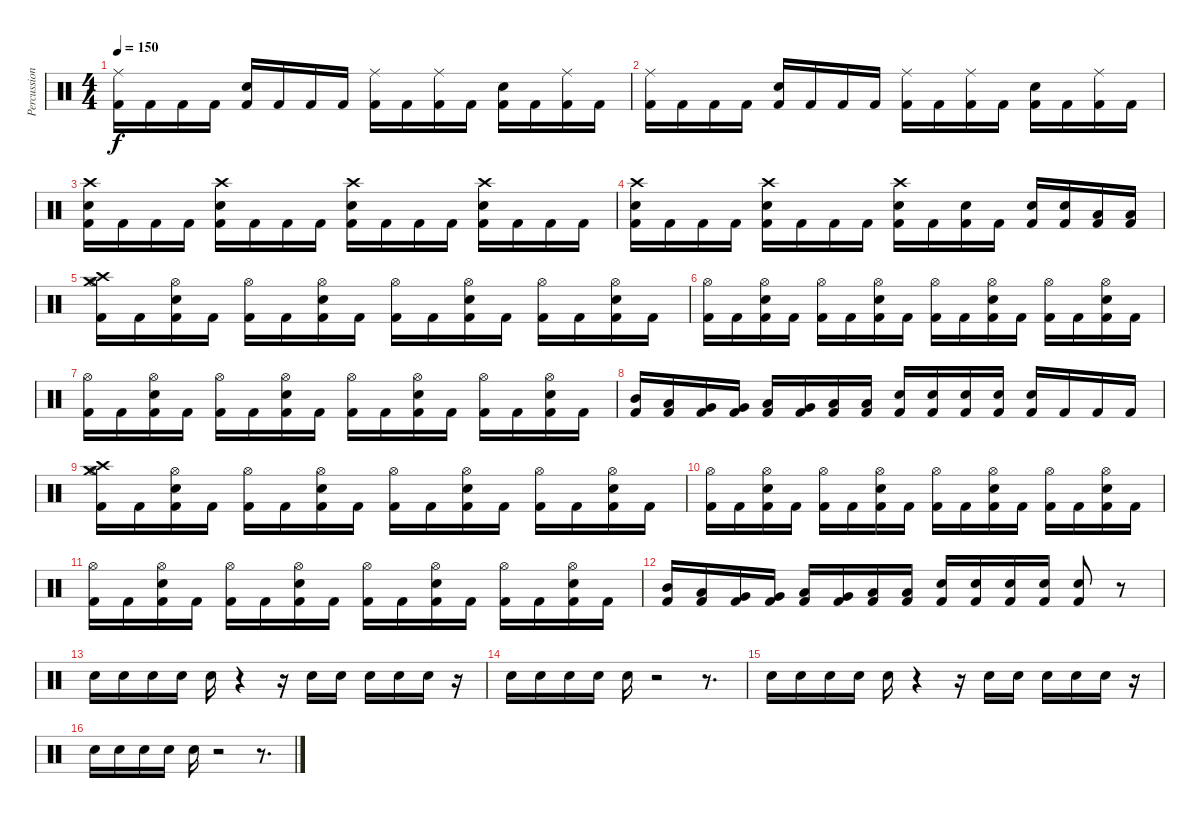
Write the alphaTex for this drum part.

\track ("Percussion" "Percussion") {instrument percussion}
\staff {score}
\articulation defaults
\ts (4 4)
\tempo 150
\clef neutral
\ks c
("Kick (hit) 2" "Ride (middle)").16{dy f} "Kick (hit) 2".16 "Kick (hit) 2".16 "Kick (hit) 2".16 ("Kick (hit) 2" "Electric Snare (hit)").16 "Kick (hit) 2".16 "Kick (hit) 2".16 "Kick (hit) 2".16 ("Kick (hit) 2" "Ride (middle)").16 "Kick (hit) 2".16 ("Kick (hit) 2" "Ride (middle)").16 "Kick (hit) 2".16 ("Kick (hit) 2" "Electric Snare (hit)").16 "Kick (hit) 2".16 ("Kick (hit) 2" "Ride (middle)").16 "Kick (hit) 2".16 |
("Kick (hit) 2" "Ride (middle)").16 "Kick (hit) 2".16 "Kick (hit) 2".16 "Kick (hit) 2".16 ("Kick (hit) 2" "Electric Snare (hit)").16 "Kick (hit) 2".16 "Kick (hit) 2".16 "Kick (hit) 2".16 ("Kick (hit) 2" "Ride (middle)").16 "Kick (hit) 2".16 ("Kick (hit) 2" "Ride (middle)").16 "Kick (hit) 2".16 ("Kick (hit) 2" "Electric Snare (hit)").16 "Kick (hit) 2".16 ("Kick (hit) 2" "Ride (middle)").16 "Kick (hit) 2".16 |
("Kick (hit) 2" "Electric Snare (hit)" "Crash high (hit)").16 "Kick (hit) 2".16 "Kick (hit) 2".16 "Kick (hit) 2".16 ("Kick (hit) 2" "Electric Snare (hit)" "Crash high (hit)").16 "Kick (hit) 2".16 "Kick (hit) 2".16 "Kick (hit) 2".16 ("Kick (hit) 2" "Electric Snare (hit)" "Crash high (hit)").16 "Kick (hit) 2".16 "Kick (hit) 2".16 "Kick (hit) 2".16 ("Kick (hit) 2" "Electric Snare (hit)" "Crash high (hit)").16 "Kick (hit) 2".16 "Kick (hit) 2".16 "Kick (hit) 2".16 |
("Kick (hit) 2" "Electric Snare (hit)" "Crash high (hit)").16 "Kick (hit) 2".16 "Kick (hit) 2".16 "Kick (hit) 2".16 ("Kick (hit) 2" "Electric Snare (hit)" "Crash high (hit)").16 "Kick (hit) 2".16 "Kick (hit) 2".16 "Kick (hit) 2".16 ("Kick (hit) 2" "Electric Snare (hit)" "Crash high (hit)").16 "Kick (hit) 2".16 ("Kick (hit) 2" "Electric Snare (hit)").16 "Kick (hit) 2".16 ("Kick (hit) 2" "Electric Snare (hit)").16 ("Kick (hit) 2" "Electric Snare (hit)").16 ("Kick (hit) 2" "Low Tom (hit)").16 ("Kick (hit) 2" "Low Tom (hit)").16 |
("Kick (hit) 2" "Crash high (hit)" "Crash medium (hit)" "Hi-Hat (open)").16 "Kick (hit) 2".16 ("Kick (hit) 2" "Electric Snare (hit)" "Hi-Hat (open)").16 "Kick (hit) 2".16 ("Kick (hit) 2" "Hi-Hat (open)").16 "Kick (hit) 2".16 ("Kick (hit) 2" "Electric Snare (hit)" "Hi-Hat (open)").16 "Kick (hit) 2".16 ("Kick (hit) 2" "Hi-Hat (open)").16 "Kick (hit) 2".16 ("Kick (hit) 2" "Electric Snare (hit)" "Hi-Hat (open)").16 "Kick (hit) 2".16 ("Kick (hit) 2" "Hi-Hat (open)").16 "Kick (hit) 2".16 ("Kick (hit) 2" "Electric Snare (hit)" "Hi-Hat (open)").16 "Kick (hit) 2".16 |
("Kick (hit) 2" "Hi-Hat (open)").16 "Kick (hit) 2".16 ("Kick (hit) 2" "Electric Snare (hit)" "Hi-Hat (open)").16 "Kick (hit) 2".16 ("Kick (hit) 2" "Hi-Hat (open)").16 "Kick (hit) 2".16 ("Kick (hit) 2" "Electric Snare (hit)" "Hi-Hat (open)").16 "Kick (hit) 2".16 ("Kick (hit) 2" "Hi-Hat (open)").16 "Kick (hit) 2".16 ("Kick (hit) 2" "Electric Snare (hit)" "Hi-Hat (open)").16 "Kick (hit) 2".16 ("Kick (hit) 2" "Hi-Hat (open)").16 "Kick (hit) 2".16 ("Kick (hit) 2" "Electric Snare (hit)" "Hi-Hat (open)").16 "Kick (hit) 2".16 |
("Kick (hit) 2" "Hi-Hat (open)").16 "Kick (hit) 2".16 ("Kick (hit) 2" "Electric Snare (hit)" "Hi-Hat (open)").16 "Kick (hit) 2".16 ("Kick (hit) 2" "Hi-Hat (open)").16 "Kick (hit) 2".16 ("Kick (hit) 2" "Electric Snare (hit)" "Hi-Hat (open)").16 "Kick (hit) 2".16 ("Kick (hit) 2" "Hi-Hat (open)").16 "Kick (hit) 2".16 ("Kick (hit) 2" "Electric Snare (hit)" "Hi-Hat (open)").16 "Kick (hit) 2".16 ("Kick (hit) 2" "Hi-Hat (open)").16 "Kick (hit) 2".16 ("Kick (hit) 2" "Electric Snare (hit)" "Hi-Hat (open)").16 "Kick (hit) 2".16 |
("Kick (hit) 2" "Mid Tom (hit)").16 ("Kick (hit) 2" "Low Tom (hit)").16 ("Kick (hit) 2" "Very Low Tom (hit)").16 ("Kick (hit) 2" "Very Low Tom (hit)").16 ("Kick (hit) 2" "Low Tom (hit)").16 ("Kick (hit) 2" "Very Low Tom (hit)").16 ("Kick (hit) 2" "Low Floor Tom (hit)").16 ("Kick (hit) 2" "Low Floor Tom (hit)").16 ("Kick (hit) 2" "Electric Snare (hit)").16 ("Kick (hit) 2" "Electric Snare (hit)").16 ("Kick (hit) 2" "Electric Snare (hit)").16 ("Kick (hit) 2" "Electric Snare (hit)").16 ("Kick (hit) 2" "Electric Snare (hit)").16 "Kick (hit) 2".16 "Kick (hit) 2".16 "Kick (hit) 2".16 |
("Kick (hit) 2" "Crash high (hit)" "Crash medium (hit)" "Hi-Hat (open)").16 "Kick (hit) 2".16 ("Kick (hit) 2" "Electric Snare (hit)" "Hi-Hat (open)").16 "Kick (hit) 2".16 ("Kick (hit) 2" "Hi-Hat (open)").16 "Kick (hit) 2".16 ("Kick (hit) 2" "Electric Snare (hit)" "Hi-Hat (open)").16 "Kick (hit) 2".16 ("Kick (hit) 2" "Hi-Hat (open)").16 "Kick (hit) 2".16 ("Kick (hit) 2" "Electric Snare (hit)" "Hi-Hat (open)").16 "Kick (hit) 2".16 ("Kick (hit) 2" "Hi-Hat (open)").16 "Kick (hit) 2".16 ("Kick (hit) 2" "Electric Snare (hit)" "Hi-Hat (open)").16 "Kick (hit) 2".16 |
("Kick (hit) 2" "Hi-Hat (open)").16 "Kick (hit) 2".16 ("Kick (hit) 2" "Electric Snare (hit)" "Hi-Hat (open)").16 "Kick (hit) 2".16 ("Kick (hit) 2" "Hi-Hat (open)").16 "Kick (hit) 2".16 ("Kick (hit) 2" "Electric Snare (hit)" "Hi-Hat (open)").16 "Kick (hit) 2".16 ("Kick (hit) 2" "Hi-Hat (open)").16 "Kick (hit) 2".16 ("Kick (hit) 2" "Electric Snare (hit)" "Hi-Hat (open)").16 "Kick (hit) 2".16 ("Kick (hit) 2" "Hi-Hat (open)").16 "Kick (hit) 2".16 ("Kick (hit) 2" "Electric Snare (hit)" "Hi-Hat (open)").16 "Kick (hit) 2".16 |
("Kick (hit) 2" "Hi-Hat (open)").16 "Kick (hit) 2".16 ("Kick (hit) 2" "Electric Snare (hit)" "Hi-Hat (open)").16 "Kick (hit) 2".16 ("Kick (hit) 2" "Hi-Hat (open)").16 "Kick (hit) 2".16 ("Kick (hit) 2" "Electric Snare (hit)" "Hi-Hat (open)").16 "Kick (hit) 2".16 ("Kick (hit) 2" "Hi-Hat (open)").16 "Kick (hit) 2".16 ("Kick (hit) 2" "Electric Snare (hit)" "Hi-Hat (open)").16 "Kick (hit) 2".16 ("Kick (hit) 2" "Hi-Hat (open)").16 "Kick (hit) 2".16 ("Kick (hit) 2" "Electric Snare (hit)" "Hi-Hat (open)").16 "Kick (hit) 2".16 |
("Kick (hit) 2" "Mid Tom (hit)").16 ("Kick (hit) 2" "Low Tom (hit)").16 ("Kick (hit) 2" "Very Low Tom (hit)").16 ("Kick (hit) 2" "Very Low Tom (hit)").16 ("Kick (hit) 2" "Low Tom (hit)").16 ("Kick (hit) 2" "Very Low Tom (hit)").16 ("Kick (hit) 2" "Low Floor Tom (hit)").16 ("Kick (hit) 2" "Low Floor Tom (hit)").16 ("Kick (hit) 2" "Electric Snare (hit)").16 ("Kick (hit) 2" "Electric Snare (hit)").16 ("Kick (hit) 2" "Electric Snare (hit)").16 ("Kick (hit) 2" "Electric Snare (hit)").16 ("Kick (hit) 2" "Electric Snare (hit)").8 r.8 |
"Electric Snare (hit)".16 "Electric Snare (hit)".16 "Electric Snare (hit)".16 "Electric Snare (hit)".16 "Electric Snare (hit)".16 r.4 r.16 "Electric Snare (hit)".16 "Electric Snare (hit)".16 "Electric Snare (hit)".16 "Electric Snare (hit)".16 "Electric Snare (hit)".16 r.16 |
"Electric Snare (hit)".16 "Electric Snare (hit)".16 "Electric Snare (hit)".16 "Electric Snare (hit)".16 "Electric Snare (hit)".16 r.2 r.8{d} |
"Electric Snare (hit)".16 "Electric Snare (hit)".16 "Electric Snare (hit)".16 "Electric Snare (hit)".16 "Electric Snare (hit)".16 r.4 r.16 "Electric Snare (hit)".16 "Electric Snare (hit)".16 "Electric Snare (hit)".16 "Electric Snare (hit)".16 "Electric Snare (hit)".16 r.16 |
"Electric Snare (hit)".16 "Electric Snare (hit)".16 "Electric Snare (hit)".16 "Electric Snare (hit)".16 "Electric Snare (hit)".16 r.2 r.8{d}
